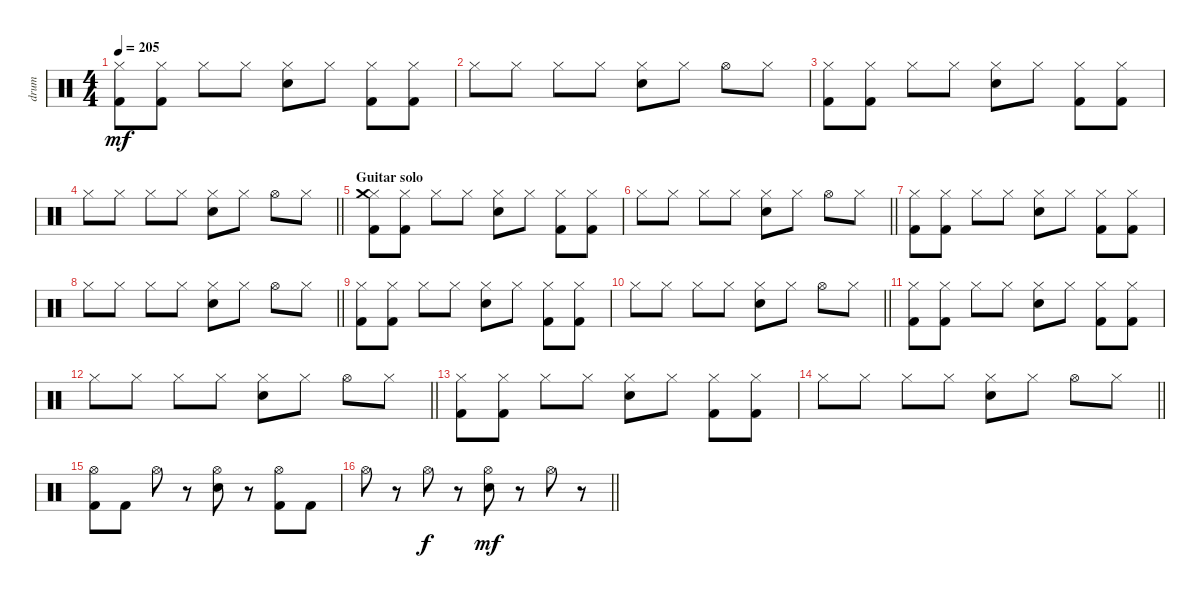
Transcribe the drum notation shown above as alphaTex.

\track ("drum" "drum") {instrument percussion}
\staff {score}
\articulation defaults
\ts (4 4)
\tempo 205
\clef neutral
\ks c
("Hi-Hat (closed)" "Kick (hit) 2").8{dy mf} ("Hi-Hat (closed)" "Kick (hit) 2").8 "Hi-Hat (closed)".8 "Hi-Hat (closed)".8 ("Hi-Hat (closed)" "Electric Snare (hit)").8 "Hi-Hat (closed)".8 ("Hi-Hat (closed)" "Kick (hit) 2").8 ("Hi-Hat (closed)" "Kick (hit) 2").8 |
"Hi-Hat (closed)".8 "Hi-Hat (closed)".8 "Hi-Hat (closed)".8 "Hi-Hat (closed)".8 ("Hi-Hat (closed)" "Electric Snare (hit)").8 "Hi-Hat (closed)".8 "Hi-Hat (open)".8 "Hi-Hat (closed)".8 |
("Hi-Hat (closed)" "Kick (hit) 2").8 ("Hi-Hat (closed)" "Kick (hit) 2").8 "Hi-Hat (closed)".8 "Hi-Hat (closed)".8 ("Hi-Hat (closed)" "Electric Snare (hit)").8 "Hi-Hat (closed)".8 ("Hi-Hat (closed)" "Kick (hit) 2").8 ("Hi-Hat (closed)" "Kick (hit) 2").8 |
\barLineRight lightlight "Hi-Hat (closed)".8 "Hi-Hat (closed)".8 "Hi-Hat (closed)".8 "Hi-Hat (closed)".8
("Hi-Hat (closed)" "Electric Snare (hit)").8 "Hi-Hat (closed)".8 "Hi-Hat (open)".8 "Hi-Hat (closed)".8 |
\section ("" "Guitar solo ")
("Hi-Hat (closed)" "Crash medium (hit)" "Kick (hit) 2").8 ("Hi-Hat (closed)" "Kick (hit) 2").8 "Hi-Hat (closed)".8 "Hi-Hat (closed)".8 ("Hi-Hat (closed)" "Electric Snare (hit)").8 "Hi-Hat (closed)".8 ("Hi-Hat (closed)" "Kick (hit) 2").8 ("Hi-Hat (closed)" "Kick (hit) 2").8 |
\barLineRight lightlight "Hi-Hat (closed)".8 "Hi-Hat (closed)".8 "Hi-Hat (closed)".8 "Hi-Hat (closed)".8
("Hi-Hat (closed)" "Electric Snare (hit)").8 "Hi-Hat (closed)".8 "Hi-Hat (open)".8 "Hi-Hat (closed)".8 |
("Hi-Hat (closed)" "Kick (hit) 2").8 ("Hi-Hat (closed)" "Kick (hit) 2").8 "Hi-Hat (closed)".8 "Hi-Hat (closed)".8 ("Hi-Hat (closed)" "Electric Snare (hit)").8 "Hi-Hat (closed)".8 ("Hi-Hat (closed)" "Kick (hit) 2").8 ("Hi-Hat (closed)" "Kick (hit) 2").8 |
\barLineRight lightlight "Hi-Hat (closed)".8 "Hi-Hat (closed)".8 "Hi-Hat (closed)".8 "Hi-Hat (closed)".8
("Hi-Hat (closed)" "Electric Snare (hit)").8 "Hi-Hat (closed)".8 "Hi-Hat (open)".8 "Hi-Hat (closed)".8 |
("Hi-Hat (closed)" "Kick (hit) 2").8 ("Hi-Hat (closed)" "Kick (hit) 2").8 "Hi-Hat (closed)".8 "Hi-Hat (closed)".8 ("Hi-Hat (closed)" "Electric Snare (hit)").8 "Hi-Hat (closed)".8 ("Hi-Hat (closed)" "Kick (hit) 2").8 ("Hi-Hat (closed)" "Kick (hit) 2").8 |
\barLineRight lightlight "Hi-Hat (closed)".8 "Hi-Hat (closed)".8 "Hi-Hat (closed)".8 "Hi-Hat (closed)".8
("Hi-Hat (closed)" "Electric Snare (hit)").8 "Hi-Hat (closed)".8 "Hi-Hat (open)".8 "Hi-Hat (closed)".8 |
("Hi-Hat (closed)" "Kick (hit) 2").8 ("Hi-Hat (closed)" "Kick (hit) 2").8 "Hi-Hat (closed)".8 "Hi-Hat (closed)".8 ("Hi-Hat (closed)" "Electric Snare (hit)").8 "Hi-Hat (closed)".8 ("Hi-Hat (closed)" "Kick (hit) 2").8 ("Hi-Hat (closed)" "Kick (hit) 2").8 |
\barLineRight lightlight "Hi-Hat (closed)".8 "Hi-Hat (closed)".8 "Hi-Hat (closed)".8 "Hi-Hat (closed)".8
("Hi-Hat (closed)" "Electric Snare (hit)").8 "Hi-Hat (closed)".8 "Hi-Hat (open)".8 "Hi-Hat (closed)".8 |
("Hi-Hat (closed)" "Kick (hit) 2").8 ("Hi-Hat (closed)" "Kick (hit) 2").8 "Hi-Hat (closed)".8 "Hi-Hat (closed)".8 ("Hi-Hat (closed)" "Electric Snare (hit)").8 "Hi-Hat (closed)".8 ("Hi-Hat (closed)" "Kick (hit) 2").8 ("Hi-Hat (closed)" "Kick (hit) 2").8 |
\barLineRight lightlight "Hi-Hat (closed)".8 "Hi-Hat (closed)".8 "Hi-Hat (closed)".8 "Hi-Hat (closed)".8
("Hi-Hat (closed)" "Electric Snare (hit)").8 "Hi-Hat (closed)".8 "Hi-Hat (open)".8 "Hi-Hat (closed)".8 |
("Hi-Hat (open)" "Kick (hit) 2").8 "Kick (hit) 2".8 "Hi-Hat (open)".8 r.8 ("Hi-Hat (open)" "Electric Snare (hit)").8 r.8 ("Hi-Hat (open)" "Kick (hit) 2").8 "Kick (hit) 2".8 |
\barLineRight lightlight "Hi-Hat (open)".8
r.8 "Hi-Hat (open)".8{dy f} r.8 ("Hi-Hat (open)" "Electric Snare (hit)").8{dy mf} r.8 "Hi-Hat (open)".8 r.8
